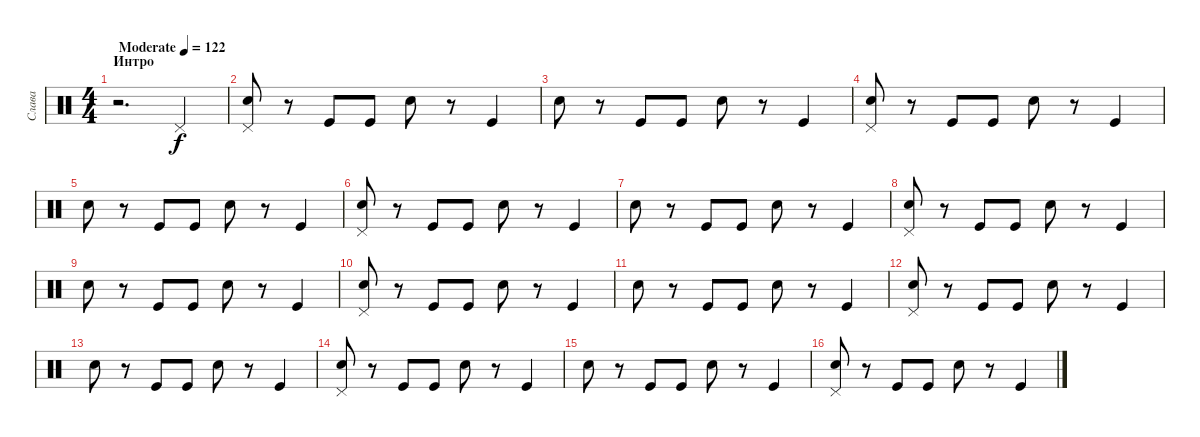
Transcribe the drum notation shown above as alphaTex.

\track ("Слава" "Слава") {instrument percussion}
\staff {score}
\articulation defaults
\ts (4 4)
\section ("" "Интро")
\tempo (122 "Moderate")
\clef neutral
\ks c
r.2{d dy f} "Pedal Hi-Hat (hit)".4 |
("Electric Snare (hit)" "Pedal Hi-Hat (hit)").8 r.8 "Kick (hit)".8 "Kick (hit)".8 "Electric Snare (hit)".8 r.8 "Kick (hit)".4 |
"Electric Snare (hit)".8 r.8 "Kick (hit)".8 "Kick (hit)".8 "Electric Snare (hit)".8 r.8 "Kick (hit)".4 |
("Electric Snare (hit)" "Pedal Hi-Hat (hit)").8 r.8 "Kick (hit)".8 "Kick (hit)".8 "Electric Snare (hit)".8 r.8 "Kick (hit)".4 |
"Electric Snare (hit)".8 r.8 "Kick (hit)".8 "Kick (hit)".8 "Electric Snare (hit)".8 r.8 "Kick (hit)".4 |
("Electric Snare (hit)" "Pedal Hi-Hat (hit)").8 r.8 "Kick (hit)".8 "Kick (hit)".8 "Electric Snare (hit)".8 r.8 "Kick (hit)".4 |
"Electric Snare (hit)".8 r.8 "Kick (hit)".8 "Kick (hit)".8 "Electric Snare (hit)".8 r.8 "Kick (hit)".4 |
("Electric Snare (hit)" "Pedal Hi-Hat (hit)").8 r.8 "Kick (hit)".8 "Kick (hit)".8 "Electric Snare (hit)".8 r.8 "Kick (hit)".4 |
"Electric Snare (hit)".8 r.8 "Kick (hit)".8 "Kick (hit)".8 "Electric Snare (hit)".8 r.8 "Kick (hit)".4 |
("Electric Snare (hit)" "Pedal Hi-Hat (hit)").8 r.8 "Kick (hit)".8 "Kick (hit)".8 "Electric Snare (hit)".8 r.8 "Kick (hit)".4 |
"Electric Snare (hit)".8 r.8 "Kick (hit)".8 "Kick (hit)".8 "Electric Snare (hit)".8 r.8 "Kick (hit)".4 |
("Electric Snare (hit)" "Pedal Hi-Hat (hit)").8 r.8 "Kick (hit)".8 "Kick (hit)".8 "Electric Snare (hit)".8 r.8 "Kick (hit)".4 |
"Electric Snare (hit)".8 r.8 "Kick (hit)".8 "Kick (hit)".8 "Electric Snare (hit)".8 r.8 "Kick (hit)".4 |
("Electric Snare (hit)" "Pedal Hi-Hat (hit)").8 r.8 "Kick (hit)".8 "Kick (hit)".8 "Electric Snare (hit)".8 r.8 "Kick (hit)".4 |
"Electric Snare (hit)".8 r.8 "Kick (hit)".8 "Kick (hit)".8 "Electric Snare (hit)".8 r.8 "Kick (hit)".4 |
("Electric Snare (hit)" "Pedal Hi-Hat (hit)").8 r.8 "Kick (hit)".8 "Kick (hit)".8 "Electric Snare (hit)".8 r.8 "Kick (hit)".4
